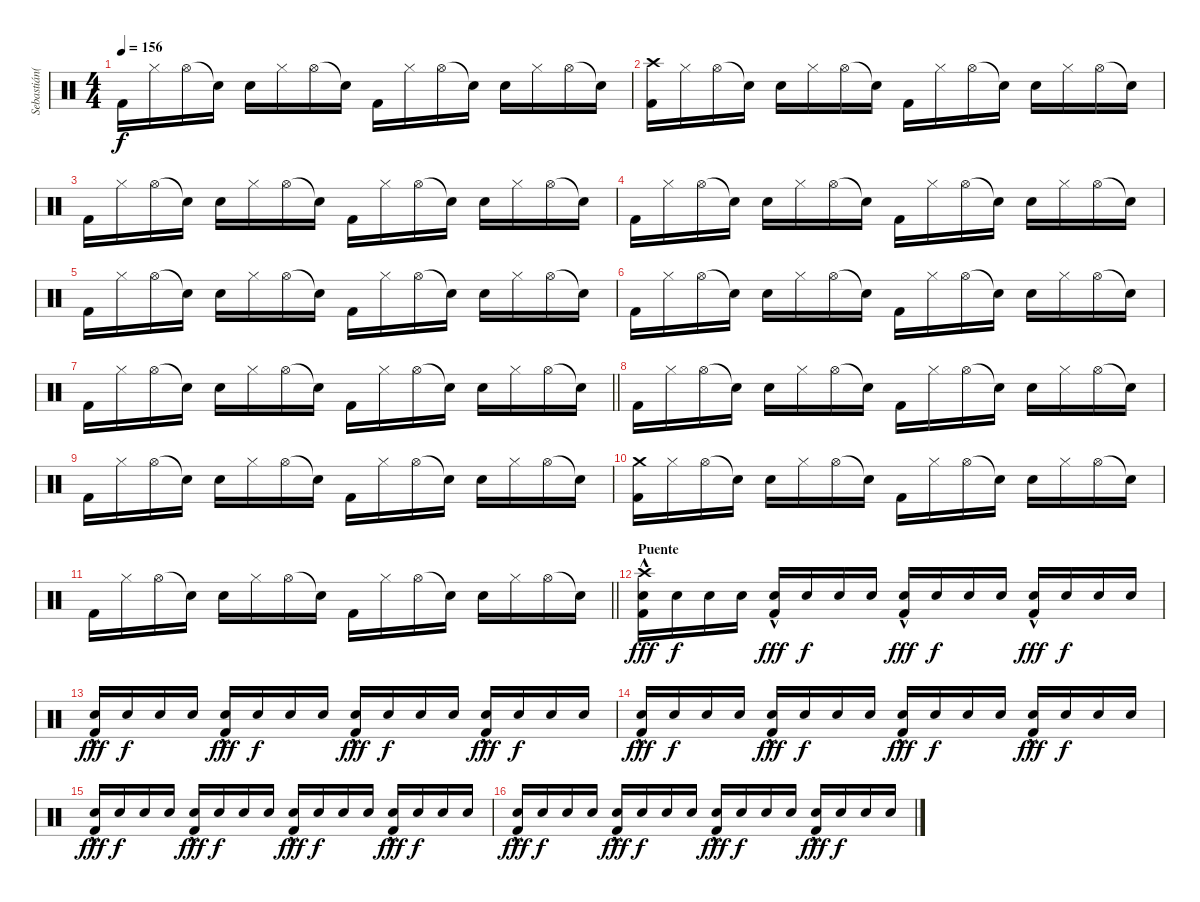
\track ("Sebastián(Percusión)" "Sebastián(") {instrument percussion}
\staff {score}
\articulation defaults
\ts (4 4)
\tempo 156
\clef neutral
\ks c "Kick (hit) 2".16{dy f} "Hi-Hat (closed)".16 "Hi-Hat (open)".16 "Snare (hit)"{t}.16 "Electric Snare (hit)".16 "Hi-Hat (closed)".16 "Hi-Hat (open)".16 "Snare (hit)"{t}.16 "Kick (hit) 2".16 "Hi-Hat (closed)".16 "Hi-Hat (open)".16 "Snare (hit)"{t}.16 "Electric Snare (hit)".16 "Hi-Hat (closed)".16 "Hi-Hat (open)".16 "Snare (hit)"{t}.16
|
("Crash high (hit)" "Kick (hit) 2").16 "Hi-Hat (closed)".16 "Hi-Hat (open)".16 "Snare (hit)"{t}.16 "Electric Snare (hit)".16 "Hi-Hat (closed)".16 "Hi-Hat (open)".16 "Snare (hit)"{t}.16 "Kick (hit) 2".16 "Hi-Hat (closed)".16 "Hi-Hat (open)".16 "Snare (hit)"{t}.16 "Electric Snare (hit)".16 "Hi-Hat (closed)".16 "Hi-Hat (open)".16 "Snare (hit)"{t}.16 |
"Kick (hit) 2".16 "Hi-Hat (closed)".16 "Hi-Hat (open)".16 "Snare (hit)"{t}.16 "Electric Snare (hit)".16 "Hi-Hat (closed)".16 "Hi-Hat (open)".16 "Snare (hit)"{t}.16 "Kick (hit) 2".16 "Hi-Hat (closed)".16 "Hi-Hat (open)".16 "Snare (hit)"{t}.16 "Electric Snare (hit)".16 "Hi-Hat (closed)".16 "Hi-Hat (open)".16 "Snare (hit)"{t}.16 |
"Kick (hit) 2".16 "Hi-Hat (closed)".16 "Hi-Hat (open)".16 "Snare (hit)"{t}.16 "Electric Snare (hit)".16 "Hi-Hat (closed)".16 "Hi-Hat (open)".16 "Snare (hit)"{t}.16 "Kick (hit) 2".16 "Hi-Hat (closed)".16 "Hi-Hat (open)".16 "Snare (hit)"{t}.16 "Electric Snare (hit)".16 "Hi-Hat (closed)".16 "Hi-Hat (open)".16 "Snare (hit)"{t}.16 |
"Kick (hit) 2".16 "Hi-Hat (closed)".16 "Hi-Hat (open)".16 "Snare (hit)"{t}.16 "Electric Snare (hit)".16 "Hi-Hat (closed)".16 "Hi-Hat (open)".16 "Snare (hit)"{t}.16 "Kick (hit) 2".16 "Hi-Hat (closed)".16 "Hi-Hat (open)".16 "Snare (hit)"{t}.16 "Electric Snare (hit)".16 "Hi-Hat (closed)".16 "Hi-Hat (open)".16 "Snare (hit)"{t}.16 |
"Kick (hit) 2".16 "Hi-Hat (closed)".16 "Hi-Hat (open)".16 "Snare (hit)"{t}.16 "Electric Snare (hit)".16 "Hi-Hat (closed)".16 "Hi-Hat (open)".16 "Snare (hit)"{t}.16 "Kick (hit) 2".16 "Hi-Hat (closed)".16 "Hi-Hat (open)".16 "Snare (hit)"{t}.16 "Electric Snare (hit)".16 "Hi-Hat (closed)".16 "Hi-Hat (open)".16 "Snare (hit)"{t}.16 |
\barLineRight lightlight "Kick (hit) 2".16 "Hi-Hat (closed)".16 "Hi-Hat (open)".16 "Snare (hit)"{t}.16 "Electric Snare (hit)".16 "Hi-Hat (closed)".16 "Hi-Hat (open)".16 "Snare (hit)"{t}.16 "Kick (hit) 2".16 "Hi-Hat (closed)".16 "Hi-Hat (open)".16 "Snare (hit)"{t}.16 "Electric Snare (hit)".16 "Hi-Hat (closed)".16 "Hi-Hat (open)".16 "Snare (hit)"{t}.16
|
\section ("" "")
"Kick (hit) 2".16 "Hi-Hat (closed)".16 "Hi-Hat (open)".16 "Snare (hit)"{t}.16 "Electric Snare (hit)".16 "Hi-Hat (closed)".16 "Hi-Hat (open)".16 "Snare (hit)"{t}.16 "Kick (hit) 2".16 "Hi-Hat (closed)".16 "Hi-Hat (open)".16 "Snare (hit)"{t}.16 "Electric Snare (hit)".16 "Hi-Hat (closed)".16 "Hi-Hat (open)".16 "Snare (hit)"{t}.16 |
"Kick (hit) 2".16 "Hi-Hat (closed)".16 "Hi-Hat (open)".16 "Snare (hit)"{t}.16 "Electric Snare (hit)".16 "Hi-Hat (closed)".16 "Hi-Hat (open)".16 "Snare (hit)"{t}.16 "Kick (hit) 2".16 "Hi-Hat (closed)".16 "Hi-Hat (open)".16 "Snare (hit)"{t}.16 "Electric Snare (hit)".16 "Hi-Hat (closed)".16 "Hi-Hat (open)".16 "Snare (hit)"{t}.16 |
("Crash medium (hit)" "Kick (hit) 2").16 "Hi-Hat (closed)".16 "Hi-Hat (open)".16 "Snare (hit)"{t}.16 "Electric Snare (hit)".16 "Hi-Hat (closed)".16 "Hi-Hat (open)".16 "Snare (hit)"{t}.16 "Kick (hit) 2".16 "Hi-Hat (closed)".16 "Hi-Hat (open)".16 "Snare (hit)"{t}.16 "Electric Snare (hit)".16 "Hi-Hat (closed)".16 "Hi-Hat (open)".16 "Snare (hit)"{t}.16 |
\barLineRight lightlight "Kick (hit) 2".16 "Hi-Hat (closed)".16 "Hi-Hat (open)".16 "Snare (hit)"{t}.16 "Electric Snare (hit)".16 "Hi-Hat (closed)".16 "Hi-Hat (open)".16 "Snare (hit)"{t}.16 "Kick (hit) 2".16 "Hi-Hat (closed)".16 "Hi-Hat (open)".16 "Snare (hit)"{t}.16 "Electric Snare (hit)".16 "Hi-Hat (closed)".16 "Hi-Hat (open)".16 "Snare (hit)"{t}.16
|
\section ("" "Puente")
("Crash high (hit)" "Electric Snare (hit)"{hac} "Kick (hit) 2").16{dy fff} "Electric Snare (hit)".16{dy f} "Electric Snare (hit)".16 "Electric Snare (hit)".16 ("Electric Snare (hit)"{hac} "Kick (hit) 2").16{dy fff} "Electric Snare (hit)".16{dy f} "Electric Snare (hit)".16 "Electric Snare (hit)".16 ("Electric Snare (hit)"{hac} "Kick (hit) 2").16{dy fff} "Electric Snare (hit)".16{dy f} "Electric Snare (hit)".16 "Electric Snare (hit)".16 ("Electric Snare (hit)"{hac} "Kick (hit) 2").16{dy fff} "Electric Snare (hit)".16{dy f} "Electric Snare (hit)".16 "Electric Snare (hit)".16 |
("Electric Snare (hit)"{hac} "Kick (hit) 2").16{dy fff} "Electric Snare (hit)".16{dy f} "Electric Snare (hit)".16 "Electric Snare (hit)".16 ("Electric Snare (hit)"{hac} "Kick (hit) 2").16{dy fff} "Electric Snare (hit)".16{dy f} "Electric Snare (hit)".16 "Electric Snare (hit)".16 ("Electric Snare (hit)"{hac} "Kick (hit) 2").16{dy fff} "Electric Snare (hit)".16{dy f} "Electric Snare (hit)".16 "Electric Snare (hit)".16 ("Electric Snare (hit)"{hac} "Kick (hit) 2").16{dy fff} "Electric Snare (hit)".16{dy f} "Electric Snare (hit)".16 "Electric Snare (hit)".16 |
("Electric Snare (hit)"{hac} "Kick (hit) 2").16{dy fff} "Electric Snare (hit)".16{dy f} "Electric Snare (hit)".16 "Electric Snare (hit)".16 ("Electric Snare (hit)"{hac} "Kick (hit) 2").16{dy fff} "Electric Snare (hit)".16{dy f} "Electric Snare (hit)".16 "Electric Snare (hit)".16 ("Electric Snare (hit)"{hac} "Kick (hit) 2").16{dy fff} "Electric Snare (hit)".16{dy f} "Electric Snare (hit)".16 "Electric Snare (hit)".16 ("Electric Snare (hit)"{hac} "Kick (hit) 2").16{dy fff} "Electric Snare (hit)".16{dy f} "Electric Snare (hit)".16 "Electric Snare (hit)".16 |
("Electric Snare (hit)"{hac} "Kick (hit) 2").16{dy fff} "Electric Snare (hit)".16{dy f} "Electric Snare (hit)".16 "Electric Snare (hit)".16 ("Electric Snare (hit)"{hac} "Kick (hit) 2").16{dy fff} "Electric Snare (hit)".16{dy f} "Electric Snare (hit)".16 "Electric Snare (hit)".16 ("Electric Snare (hit)"{hac} "Kick (hit) 2").16{dy fff} "Electric Snare (hit)".16{dy f} "Electric Snare (hit)".16 "Electric Snare (hit)".16 ("Electric Snare (hit)"{hac} "Kick (hit) 2").16{dy fff} "Electric Snare (hit)".16{dy f} "Electric Snare (hit)".16 "Electric Snare (hit)".16 |
("Electric Snare (hit)"{hac} "Kick (hit) 2").16{dy fff} "Electric Snare (hit)".16{dy f} "Electric Snare (hit)".16 "Electric Snare (hit)".16 ("Electric Snare (hit)"{hac} "Kick (hit) 2").16{dy fff} "Electric Snare (hit)".16{dy f} "Electric Snare (hit)".16 "Electric Snare (hit)".16 ("Electric Snare (hit)"{hac} "Kick (hit) 2").16{dy fff} "Electric Snare (hit)".16{dy f} "Electric Snare (hit)".16 "Electric Snare (hit)".16 ("Electric Snare (hit)"{hac} "Kick (hit) 2").16{dy fff} "Electric Snare (hit)".16{dy f} "Electric Snare (hit)".16 "Electric Snare (hit)".16
